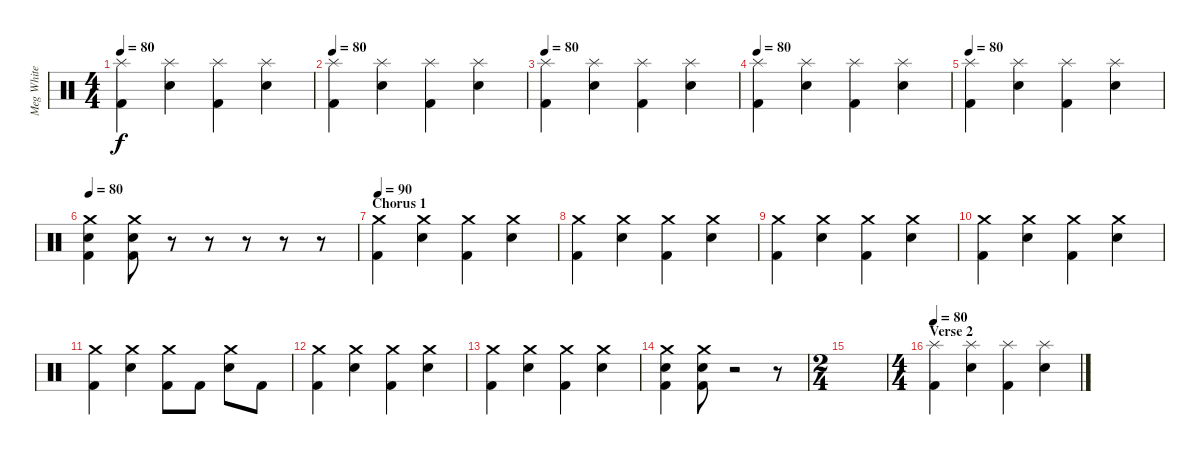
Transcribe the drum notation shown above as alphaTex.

\track ("Meg White - Drums" "Meg White ") {instrument percussion}
\staff {score}
\articulation defaults
\ts (4 4)
\tempo 80
\clef neutral
\ks c
("Splash (hit)" "Kick (hit) 2").4{dy f} ("Splash (hit)" "Snare (hit) 2").4 ("Splash (hit)" "Kick (hit) 2").4 ("Splash (hit)" "Snare (hit) 2").4 |
\tempo 80
("Splash (hit)" "Kick (hit) 2").4 ("Splash (hit)" "Snare (hit) 2").4 ("Splash (hit)" "Kick (hit) 2").4 ("Splash (hit)" "Snare (hit) 2").4 |
\tempo 80
("Splash (hit)" "Kick (hit) 2").4 ("Splash (hit)" "Snare (hit) 2").4 ("Splash (hit)" "Kick (hit) 2").4 ("Splash (hit)" "Snare (hit) 2").4 |
\tempo 80
("Splash (hit)" "Kick (hit) 2").4 ("Splash (hit)" "Snare (hit) 2").4 ("Splash (hit)" "Kick (hit) 2").4 ("Splash (hit)" "Snare (hit) 2").4 |
\tempo 80
("Splash (hit)" "Kick (hit) 2").4 ("Splash (hit)" "Snare (hit) 2").4 ("Splash (hit)" "Kick (hit) 2").4 ("Splash (hit)" "Snare (hit) 2").4 |
\tempo 80
("Crash medium (hit)" "Snare (hit) 2" "Kick (hit) 2").4 ("Crash medium (hit)" "Snare (hit) 2" "Kick (hit) 2").8 r.8 r.8 r.8 r.8 r.8 |
\section ("" "Chorus 1")
\tempo 90
("Crash medium (hit)" "Kick (hit) 2").4 ("Crash medium (hit)" "Snare (hit) 2").4 ("Crash medium (hit)" "Kick (hit) 2").4 ("Crash medium (hit)" "Snare (hit) 2").4 |
("Crash medium (hit)" "Kick (hit) 2").4 ("Crash medium (hit)" "Snare (hit) 2").4 ("Crash medium (hit)" "Kick (hit) 2").4 ("Crash medium (hit)" "Snare (hit) 2").4 |
("Crash medium (hit)" "Kick (hit) 2").4 ("Crash medium (hit)" "Snare (hit) 2").4 ("Crash medium (hit)" "Kick (hit) 2").4 ("Crash medium (hit)" "Snare (hit) 2").4 |
("Crash medium (hit)" "Kick (hit) 2").4 ("Crash medium (hit)" "Snare (hit) 2").4 ("Crash medium (hit)" "Kick (hit) 2").4 ("Crash medium (hit)" "Snare (hit) 2").4 |
("Crash medium (hit)" "Kick (hit) 2").4 ("Crash medium (hit)" "Snare (hit) 2").4 ("Crash medium (hit)" "Kick (hit) 2").8 "Kick (hit) 2".8 ("Crash medium (hit)" "Snare (hit) 2").8 "Kick (hit) 2".8 |
("Crash medium (hit)" "Kick (hit) 2").4 ("Crash medium (hit)" "Snare (hit) 2").4 ("Crash medium (hit)" "Kick (hit) 2").4 ("Crash medium (hit)" "Snare (hit) 2").4 |
("Crash medium (hit)" "Kick (hit) 2").4 ("Crash medium (hit)" "Snare (hit) 2").4 ("Crash medium (hit)" "Kick (hit) 2").4 ("Crash medium (hit)" "Snare (hit) 2").4 |
("Crash medium (hit)" "Snare (hit) 2" "Kick (hit) 2").4 ("Crash medium (hit)" "Snare (hit) 2" "Kick (hit) 2").8 r.2 r.8 |
\ts (2 4)
|
\ts (4 4)
\section ("" "Verse 2")
\tempo 80
("Splash (hit)" "Kick (hit) 2").4 ("Splash (hit)" "Snare (hit) 2").4 ("Splash (hit)" "Kick (hit) 2").4 ("Splash (hit)" "Snare (hit) 2").4
